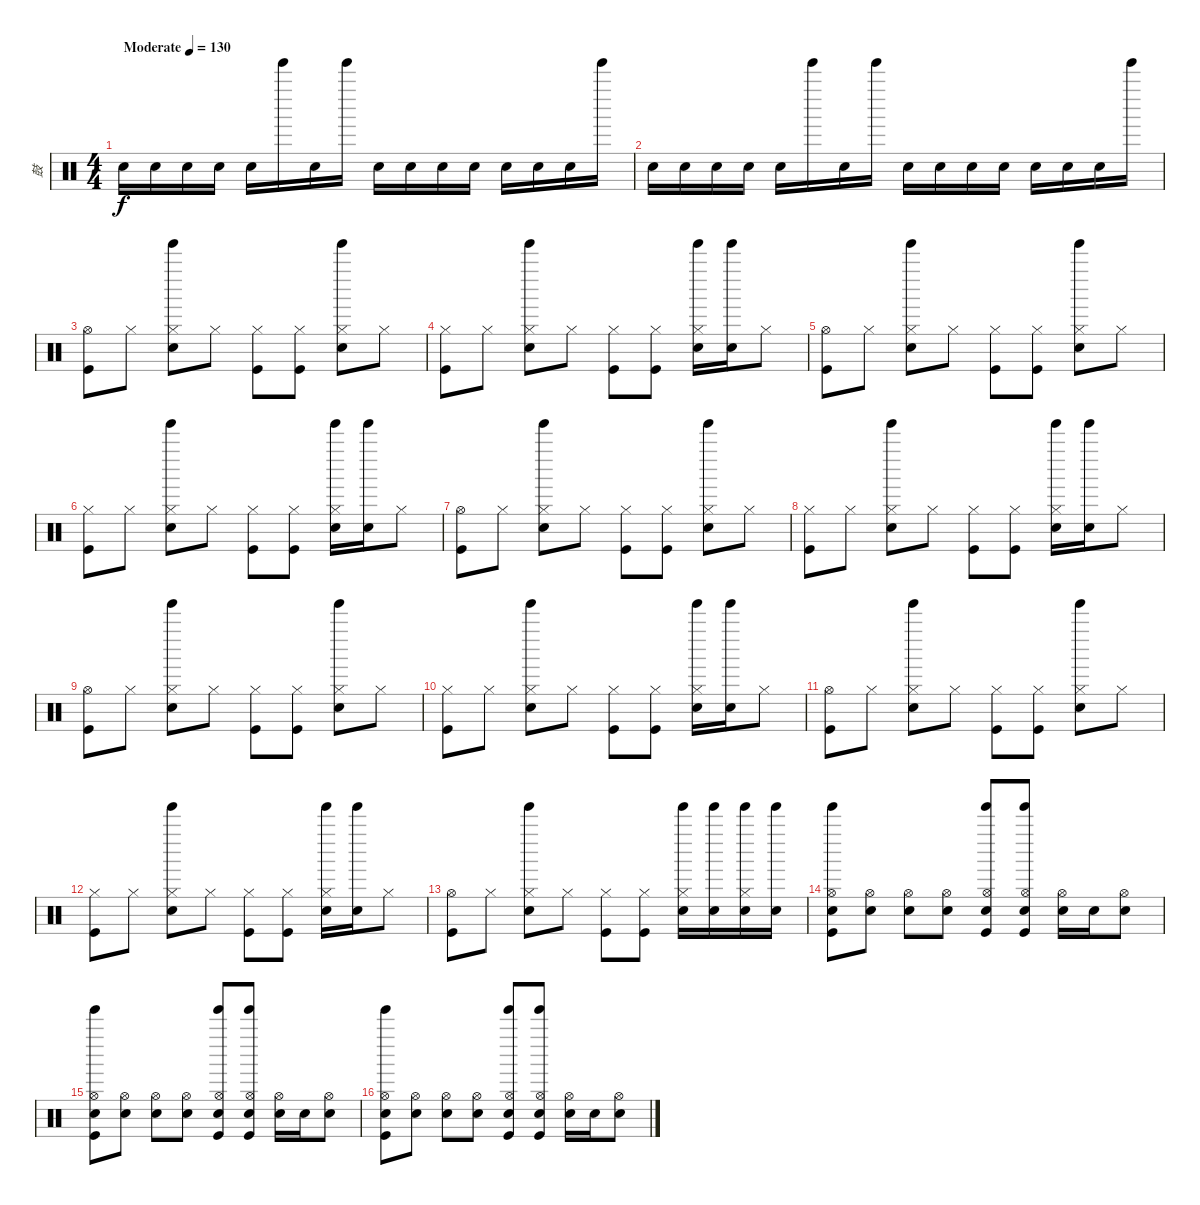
\track ("鼓" "鼓") {instrument percussion}
\staff {score}
\articulation defaults
\ts (4 4)
\tempo (130 "Moderate")
\clef neutral
\ks c "Snare (hit) 2".16{dy f} "Snare (hit) 2".16 "Snare (hit) 2".16 "Snare (hit) 2".16 "Snare (hit) 2".16 "Tinkle Bell (hit)".16 "Snare (hit) 2".16 "Tinkle Bell (hit)".16 "Snare (hit) 2".16 "Snare (hit) 2".16 "Snare (hit) 2".16 "Snare (hit) 2".16 "Snare (hit) 2".16 "Snare (hit) 2".16 "Snare (hit) 2".16 "Tinkle Bell (hit)".16
|
"Snare (hit) 2".16 "Snare (hit) 2".16 "Snare (hit) 2".16 "Snare (hit) 2".16 "Snare (hit) 2".16 "Tinkle Bell (hit)".16 "Snare (hit) 2".16 "Tinkle Bell (hit)".16 "Snare (hit) 2".16 "Snare (hit) 2".16 "Snare (hit) 2".16 "Snare (hit) 2".16 "Snare (hit) 2".16 "Snare (hit) 2".16 "Snare (hit) 2".16 "Tinkle Bell (hit)".16 |
("Hi-Hat (open)" "Kick (hit)").8 "Hi-Hat (closed)".8 ("Hi-Hat (closed)" "Tinkle Bell (hit)" "Snare (hit) 2").8 "Hi-Hat (closed)".8 ("Hi-Hat (closed)" "Kick (hit)").8 ("Hi-Hat (closed)" "Kick (hit)").8 ("Hi-Hat (closed)" "Tinkle Bell (hit)" "Snare (hit) 2").8 "Hi-Hat (closed)".8 |
("Hi-Hat (closed)" "Kick (hit)").8 "Hi-Hat (closed)".8 ("Hi-Hat (closed)" "Tinkle Bell (hit)" "Snare (hit) 2").8 "Hi-Hat (closed)".8 ("Hi-Hat (closed)" "Kick (hit)").8 ("Hi-Hat (closed)" "Kick (hit)").8 ("Hi-Hat (closed)" "Tinkle Bell (hit)" "Snare (hit) 2").16 ("Tinkle Bell (hit)" "Snare (hit) 2").16 "Hi-Hat (closed)".8 |
("Hi-Hat (open)" "Kick (hit)").8 "Hi-Hat (closed)".8 ("Hi-Hat (closed)" "Tinkle Bell (hit)" "Snare (hit) 2").8 "Hi-Hat (closed)".8 ("Hi-Hat (closed)" "Kick (hit)").8 ("Hi-Hat (closed)" "Kick (hit)").8 ("Hi-Hat (closed)" "Tinkle Bell (hit)" "Snare (hit) 2").8 "Hi-Hat (closed)".8 |
("Hi-Hat (closed)" "Kick (hit)").8 "Hi-Hat (closed)".8 ("Hi-Hat (closed)" "Tinkle Bell (hit)" "Snare (hit) 2").8 "Hi-Hat (closed)".8 ("Hi-Hat (closed)" "Kick (hit)").8 ("Hi-Hat (closed)" "Kick (hit)").8 ("Hi-Hat (closed)" "Tinkle Bell (hit)" "Snare (hit) 2").16 ("Tinkle Bell (hit)" "Snare (hit) 2").16 "Hi-Hat (closed)".8 |
("Hi-Hat (open)" "Kick (hit)").8 "Hi-Hat (closed)".8 ("Hi-Hat (closed)" "Tinkle Bell (hit)" "Snare (hit) 2").8 "Hi-Hat (closed)".8 ("Hi-Hat (closed)" "Kick (hit)").8 ("Hi-Hat (closed)" "Kick (hit)").8 ("Hi-Hat (closed)" "Tinkle Bell (hit)" "Snare (hit) 2").8 "Hi-Hat (closed)".8 |
("Hi-Hat (closed)" "Kick (hit)").8 "Hi-Hat (closed)".8 ("Hi-Hat (closed)" "Tinkle Bell (hit)" "Snare (hit) 2").8 "Hi-Hat (closed)".8 ("Hi-Hat (closed)" "Kick (hit)").8 ("Hi-Hat (closed)" "Kick (hit)").8 ("Hi-Hat (closed)" "Tinkle Bell (hit)" "Snare (hit) 2").16 ("Tinkle Bell (hit)" "Snare (hit) 2").16 "Hi-Hat (closed)".8 |
("Hi-Hat (open)" "Kick (hit)").8 "Hi-Hat (closed)".8 ("Hi-Hat (closed)" "Tinkle Bell (hit)" "Snare (hit) 2").8 "Hi-Hat (closed)".8 ("Hi-Hat (closed)" "Kick (hit)").8 ("Hi-Hat (closed)" "Kick (hit)").8 ("Hi-Hat (closed)" "Tinkle Bell (hit)" "Snare (hit) 2").8 "Hi-Hat (closed)".8 |
("Hi-Hat (closed)" "Kick (hit)").8 "Hi-Hat (closed)".8 ("Hi-Hat (closed)" "Tinkle Bell (hit)" "Snare (hit) 2").8 "Hi-Hat (closed)".8 ("Hi-Hat (closed)" "Kick (hit)").8 ("Hi-Hat (closed)" "Kick (hit)").8 ("Hi-Hat (closed)" "Tinkle Bell (hit)" "Snare (hit) 2").16 ("Tinkle Bell (hit)" "Snare (hit) 2").16 "Hi-Hat (closed)".8 |
("Hi-Hat (open)" "Kick (hit)").8 "Hi-Hat (closed)".8 ("Hi-Hat (closed)" "Tinkle Bell (hit)" "Snare (hit) 2").8 "Hi-Hat (closed)".8 ("Hi-Hat (closed)" "Kick (hit)").8 ("Hi-Hat (closed)" "Kick (hit)").8 ("Hi-Hat (closed)" "Tinkle Bell (hit)" "Snare (hit) 2").8 "Hi-Hat (closed)".8 |
("Hi-Hat (closed)" "Kick (hit)").8 "Hi-Hat (closed)".8 ("Hi-Hat (closed)" "Tinkle Bell (hit)" "Snare (hit) 2").8 "Hi-Hat (closed)".8 ("Hi-Hat (closed)" "Kick (hit)").8 ("Hi-Hat (closed)" "Kick (hit)").8 ("Hi-Hat (closed)" "Tinkle Bell (hit)" "Snare (hit) 2").16 ("Tinkle Bell (hit)" "Snare (hit) 2").16 "Hi-Hat (closed)".8 |
("Hi-Hat (open)" "Kick (hit)").8 "Hi-Hat (closed)".8 ("Hi-Hat (closed)" "Tinkle Bell (hit)" "Snare (hit) 2").8 "Hi-Hat (closed)".8 ("Hi-Hat (closed)" "Kick (hit)").8 ("Hi-Hat (closed)" "Kick (hit)").8 ("Hi-Hat (closed)" "Tinkle Bell (hit)" "Snare (hit) 2").16 ("Tinkle Bell (hit)" "Snare (hit) 2").16 ("Hi-Hat (closed)" "Tinkle Bell (hit)" "Snare (hit) 2").16 ("Tinkle Bell (hit)" "Snare (hit) 2").16 |
("Hi-Hat (open)" "Tinkle Bell (hit)" "Snare (hit) 2" "Kick (hit)").8 ("Hi-Hat (open)" "Snare (hit) 2").8 ("Hi-Hat (open)" "Snare (hit) 2").8 ("Hi-Hat (open)" "Snare (hit) 2").8 ("Hi-Hat (open)" "Tinkle Bell (hit)" "Snare (hit) 2" "Kick (hit)").8 ("Hi-Hat (open)" "Tinkle Bell (hit)" "Snare (hit) 2" "Kick (hit)").8 ("Hi-Hat (open)" "Snare (hit) 2").16 "Snare (hit) 2".16 ("Hi-Hat (open)" "Snare (hit) 2").8 |
("Hi-Hat (open)" "Tinkle Bell (hit)" "Snare (hit) 2" "Kick (hit)").8 ("Hi-Hat (open)" "Snare (hit) 2").8 ("Hi-Hat (open)" "Snare (hit) 2").8 ("Hi-Hat (open)" "Snare (hit) 2").8 ("Hi-Hat (open)" "Tinkle Bell (hit)" "Snare (hit) 2" "Kick (hit)").8 ("Hi-Hat (open)" "Tinkle Bell (hit)" "Snare (hit) 2" "Kick (hit)").8 ("Hi-Hat (open)" "Snare (hit) 2").16 "Snare (hit) 2".16 ("Hi-Hat (open)" "Snare (hit) 2").8 |
("Hi-Hat (open)" "Tinkle Bell (hit)" "Snare (hit) 2" "Kick (hit)").8 ("Hi-Hat (open)" "Snare (hit) 2").8 ("Hi-Hat (open)" "Snare (hit) 2").8 ("Hi-Hat (open)" "Snare (hit) 2").8 ("Hi-Hat (open)" "Tinkle Bell (hit)" "Snare (hit) 2" "Kick (hit)").8 ("Hi-Hat (open)" "Tinkle Bell (hit)" "Snare (hit) 2" "Kick (hit)").8 ("Hi-Hat (open)" "Snare (hit) 2").16 "Snare (hit) 2".16 ("Hi-Hat (open)" "Snare (hit) 2").8
